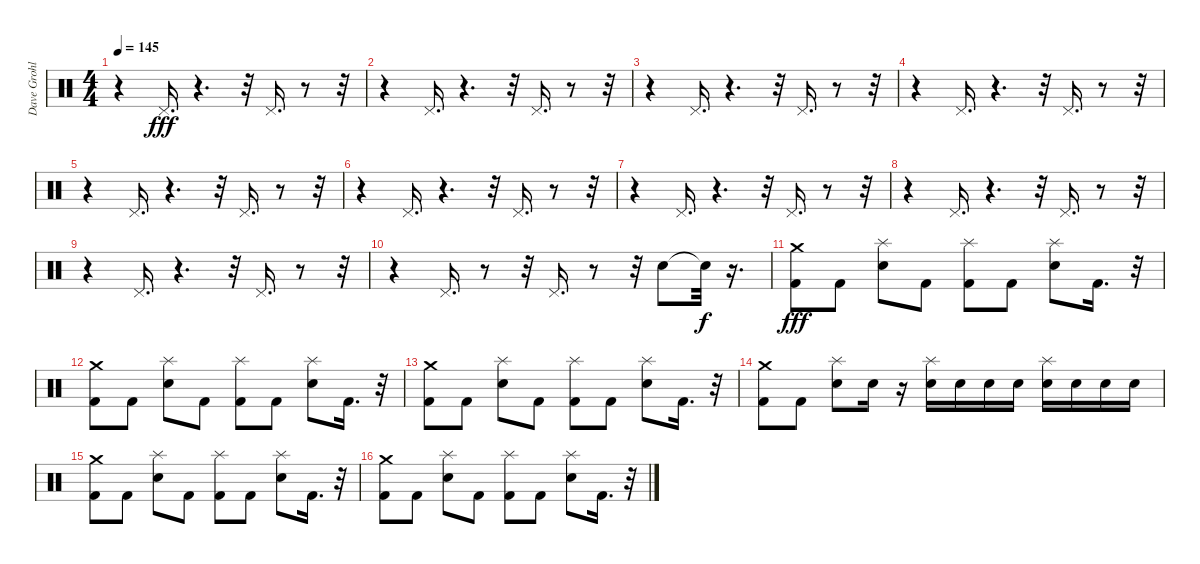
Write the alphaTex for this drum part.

\track ("Dave Grohl - Drums" "Dave Grohl") {instrument percussion}
\staff {score}
\articulation defaults
\ts (4 4)
\tempo 145
\clef neutral
\ks c
r.4{dy fff} "Pedal Hi-Hat (hit)".16{d} r.4{d} r.32 "Pedal Hi-Hat (hit)".16{d} r.8 r.32 |
r.4 "Pedal Hi-Hat (hit)".16{d} r.4{d} r.32 "Pedal Hi-Hat (hit)".16{d} r.8 r.32 |
r.4 "Pedal Hi-Hat (hit)".16{d} r.4{d} r.32 "Pedal Hi-Hat (hit)".16{d} r.8 r.32 |
r.4 "Pedal Hi-Hat (hit)".16{d} r.4{d} r.32 "Pedal Hi-Hat (hit)".16{d} r.8 r.32 |
r.4 "Pedal Hi-Hat (hit)".16{d} r.4{d} r.32 "Pedal Hi-Hat (hit)".16{d} r.8 r.32 |
r.4 "Pedal Hi-Hat (hit)".16{d} r.4{d} r.32 "Pedal Hi-Hat (hit)".16{d} r.8 r.32 |
r.4 "Pedal Hi-Hat (hit)".16{d} r.4{d} r.32 "Pedal Hi-Hat (hit)".16{d} r.8 r.32 |
r.4 "Pedal Hi-Hat (hit)".16{d} r.4{d} r.32 "Pedal Hi-Hat (hit)".16{d} r.8 r.32 |
r.4 "Pedal Hi-Hat (hit)".16{d} r.4{d} r.32 "Pedal Hi-Hat (hit)".16{d} r.8 r.32 |
r.4 "Pedal Hi-Hat (hit)".16{d} r.8 r.32 "Pedal Hi-Hat (hit)".16{d} r.8 r.32 "Snare (hit) 2".8 "Snare (hit)"{t}.32{dy f} r.16{d} |
("Kick (hit) 2" "Crash medium (hit)").8{dy fff} "Kick (hit) 2".8 ("Splash (hit)" "Snare (hit) 2").8 "Kick (hit) 2".8 ("Splash (hit)" "Kick (hit) 2").8 "Kick (hit) 2".8 ("Splash (hit)" "Snare (hit) 2").8 "Kick (hit) 2".16{d} r.32 |
("Kick (hit) 2" "Crash medium (hit)").8 "Kick (hit) 2".8 ("Splash (hit)" "Snare (hit) 2").8 "Kick (hit) 2".8 ("Splash (hit)" "Kick (hit) 2").8 "Kick (hit) 2".8 ("Splash (hit)" "Snare (hit) 2").8 "Kick (hit) 2".16{d} r.32 |
("Kick (hit) 2" "Crash medium (hit)").8 "Kick (hit) 2".8 ("Splash (hit)" "Snare (hit) 2").8 "Kick (hit) 2".8 ("Splash (hit)" "Kick (hit) 2").8 "Kick (hit) 2".8 ("Splash (hit)" "Snare (hit) 2").8 "Kick (hit) 2".16{d} r.32 |
("Kick (hit) 2" "Crash medium (hit)").8 "Kick (hit) 2".8 ("Splash (hit)" "Snare (hit) 2").8 "Snare (hit) 2".16 r.16 ("Splash (hit)" "Snare (hit) 2").16 "Snare (hit) 2".16 "Snare (hit) 2".16 "Snare (hit) 2".16 ("Splash (hit)" "Snare (hit) 2").16 "Snare (hit) 2".16 "Snare (hit) 2".16 "Snare (hit) 2".16 |
("Kick (hit) 2" "Crash medium (hit)").8 "Kick (hit) 2".8 ("Splash (hit)" "Snare (hit) 2").8 "Kick (hit) 2".8 ("Splash (hit)" "Kick (hit) 2").8 "Kick (hit) 2".8 ("Splash (hit)" "Snare (hit) 2").8 "Kick (hit) 2".16{d} r.32 |
("Kick (hit) 2" "Crash medium (hit)").8 "Kick (hit) 2".8 ("Splash (hit)" "Snare (hit) 2").8 "Kick (hit) 2".8 ("Splash (hit)" "Kick (hit) 2").8 "Kick (hit) 2".8 ("Splash (hit)" "Snare (hit) 2").8 "Kick (hit) 2".16{d} r.32
